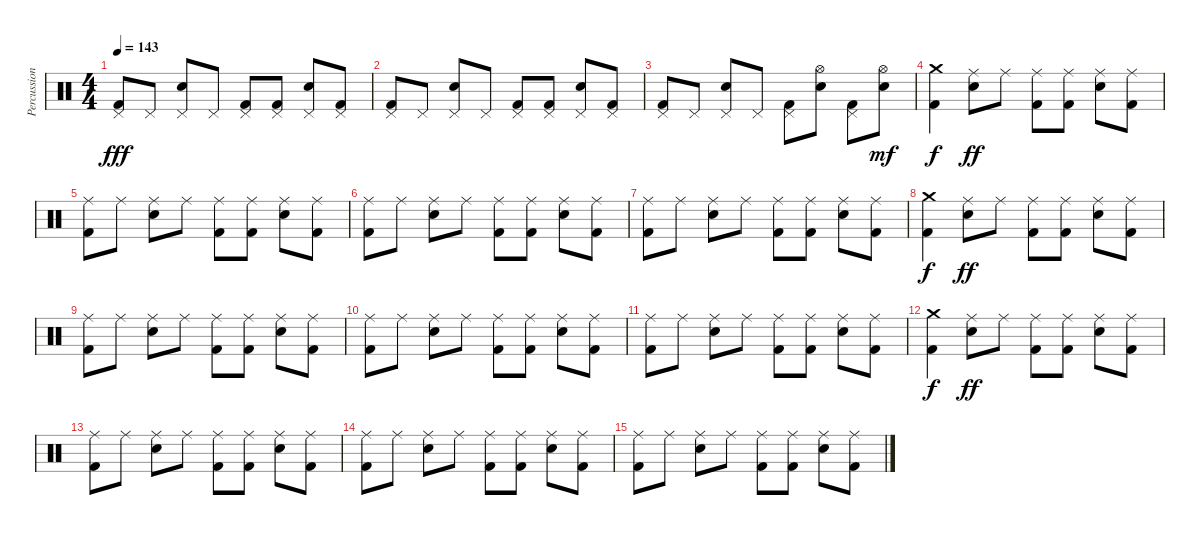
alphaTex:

\track ("Percussion" "Percussion") {instrument percussion}
\staff {score}
\articulation defaults
\ts (4 4)
\tempo 143
\clef neutral
\ks c
("Pedal Hi-Hat (hit)" "Kick (hit) 2").8{dy fff} "Pedal Hi-Hat (hit)".8 ("Pedal Hi-Hat (hit)" "Snare (hit) 2").8 "Pedal Hi-Hat (hit)".8 ("Pedal Hi-Hat (hit)" "Kick (hit) 2").8 ("Pedal Hi-Hat (hit)" "Kick (hit) 2").8 ("Pedal Hi-Hat (hit)" "Snare (hit) 2").8 ("Pedal Hi-Hat (hit)" "Kick (hit) 2").8 |
("Pedal Hi-Hat (hit)" "Kick (hit) 2").8 "Pedal Hi-Hat (hit)".8 ("Pedal Hi-Hat (hit)" "Snare (hit) 2").8 "Pedal Hi-Hat (hit)".8 ("Pedal Hi-Hat (hit)" "Kick (hit) 2").8 ("Pedal Hi-Hat (hit)" "Kick (hit) 2").8 ("Pedal Hi-Hat (hit)" "Snare (hit) 2").8 ("Pedal Hi-Hat (hit)" "Kick (hit) 2").8 |
("Pedal Hi-Hat (hit)" "Kick (hit) 2").8 "Pedal Hi-Hat (hit)".8 ("Pedal Hi-Hat (hit)" "Snare (hit) 2").8 "Pedal Hi-Hat (hit)".8 ("Pedal Hi-Hat (hit)" "Kick (hit) 2").8 ("Hi-Hat (open)" "Snare (hit) 2").8 ("Pedal Hi-Hat (hit)" "Kick (hit) 2").8 ("Hi-Hat (open)" "Snare (hit) 2").8{dy mf} |
("Crash medium (hit)" "Kick (hit) 2").4{dy f} ("Ride (middle)" "Snare (hit) 2").8{dy ff} "Ride (middle)".8 ("Ride (middle)" "Kick (hit) 2").8 ("Ride (middle)" "Kick (hit) 2").8 ("Ride (middle)" "Snare (hit) 2").8 ("Ride (middle)" "Kick (hit) 2").8 |
("Ride (middle)" "Kick (hit) 2").8 "Ride (middle)".8 ("Ride (middle)" "Snare (hit) 2").8 "Ride (middle)".8 ("Ride (middle)" "Kick (hit) 2").8 ("Ride (middle)" "Kick (hit) 2").8 ("Ride (middle)" "Snare (hit) 2").8 ("Ride (middle)" "Kick (hit) 2").8 |
("Ride (middle)" "Kick (hit) 2").8 "Ride (middle)".8 ("Ride (middle)" "Snare (hit) 2").8 "Ride (middle)".8 ("Ride (middle)" "Kick (hit) 2").8 ("Ride (middle)" "Kick (hit) 2").8 ("Ride (middle)" "Snare (hit) 2").8 ("Ride (middle)" "Kick (hit) 2").8 |
("Ride (middle)" "Kick (hit) 2").8 "Ride (middle)".8 ("Ride (middle)" "Snare (hit) 2").8 "Ride (middle)".8 ("Ride (middle)" "Kick (hit) 2").8 ("Ride (middle)" "Kick (hit) 2").8 ("Ride (middle)" "Snare (hit) 2").8 ("Ride (middle)" "Kick (hit) 2").8 |
("Crash medium (hit)" "Kick (hit) 2").4{dy f} ("Ride (middle)" "Snare (hit) 2").8{dy ff} "Ride (middle)".8 ("Ride (middle)" "Kick (hit) 2").8 ("Ride (middle)" "Kick (hit) 2").8 ("Ride (middle)" "Snare (hit) 2").8 ("Ride (middle)" "Kick (hit) 2").8 |
("Ride (middle)" "Kick (hit) 2").8{volume 11} "Ride (middle)".8 ("Ride (middle)" "Snare (hit) 2").8 "Ride (middle)".8 ("Ride (middle)" "Kick (hit) 2").8 ("Ride (middle)" "Kick (hit) 2").8 ("Ride (middle)" "Snare (hit) 2").8 ("Ride (middle)" "Kick (hit) 2").8 |
("Ride (middle)" "Kick (hit) 2").8{volume 10} "Ride (middle)".8 ("Ride (middle)" "Snare (hit) 2").8 "Ride (middle)".8 ("Ride (middle)" "Kick (hit) 2").8 ("Ride (middle)" "Kick (hit) 2").8 ("Ride (middle)" "Snare (hit) 2").8 ("Ride (middle)" "Kick (hit) 2").8 |
("Ride (middle)" "Kick (hit) 2").8{volume 9} "Ride (middle)".8 ("Ride (middle)" "Snare (hit) 2").8 "Ride (middle)".8 ("Ride (middle)" "Kick (hit) 2").8 ("Ride (middle)" "Kick (hit) 2").8 ("Ride (middle)" "Snare (hit) 2").8 ("Ride (middle)" "Kick (hit) 2").8 |
("Crash medium (hit)" "Kick (hit) 2").4{dy f volume 8} ("Ride (middle)" "Snare (hit) 2").8{dy ff} "Ride (middle)".8 ("Ride (middle)" "Kick (hit) 2").8 ("Ride (middle)" "Kick (hit) 2").8 ("Ride (middle)" "Snare (hit) 2").8 ("Ride (middle)" "Kick (hit) 2").8 |
("Ride (middle)" "Kick (hit) 2").8{volume 7} "Ride (middle)".8 ("Ride (middle)" "Snare (hit) 2").8 "Ride (middle)".8 ("Ride (middle)" "Kick (hit) 2").8{volume 6} ("Ride (middle)" "Kick (hit) 2").8 ("Ride (middle)" "Snare (hit) 2").8 ("Ride (middle)" "Kick (hit) 2").8 |
("Ride (middle)" "Kick (hit) 2").8{volume 4} "Ride (middle)".8 ("Ride (middle)" "Snare (hit) 2").8 "Ride (middle)".8 ("Ride (middle)" "Kick (hit) 2").8 ("Ride (middle)" "Kick (hit) 2").8 ("Ride (middle)" "Snare (hit) 2").8 ("Ride (middle)" "Kick (hit) 2").8 |
("Ride (middle)" "Kick (hit) 2").8{volume 2} "Ride (middle)".8 ("Ride (middle)" "Snare (hit) 2").8 "Ride (middle)".8 ("Ride (middle)" "Kick (hit) 2").8 ("Ride (middle)" "Kick (hit) 2").8 ("Ride (middle)" "Snare (hit) 2").8 ("Ride (middle)" "Kick (hit) 2").8
